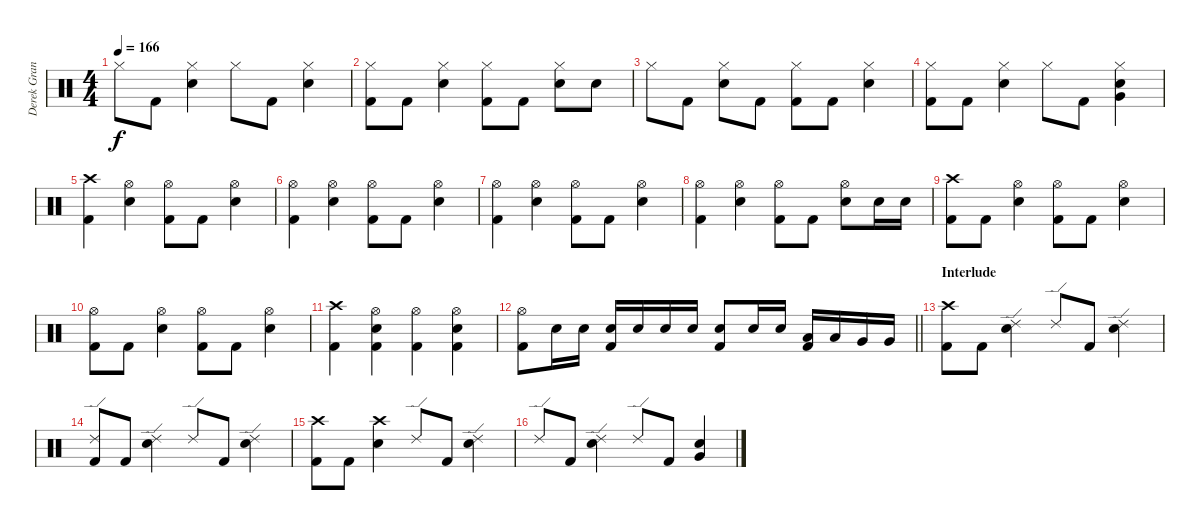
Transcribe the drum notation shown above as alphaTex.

\track ("Derek Grant - Drums" "Derek Gran") {instrument percussion}
\staff {score}
\articulation defaults
\ts (4 4)
\tempo 166
\clef neutral
\ks c "Hi-Hat (closed)".8{dy f} "Kick (hit) 2".8
("Snare (hit) 2" "Hi-Hat (closed)").4 "Hi-Hat (closed)".8 "Kick (hit) 2".8 ("Snare (hit) 2" "Hi-Hat (closed)").4 |
("Hi-Hat (closed)" "Kick (hit) 2").8 "Kick (hit) 2".8 ("Snare (hit) 2" "Hi-Hat (closed)").4 ("Hi-Hat (closed)" "Kick (hit) 2").8 "Kick (hit) 2".8 ("Snare (hit) 2" "Hi-Hat (closed)").8 "Snare (hit) 2".8 |
"Hi-Hat (closed)".8 "Kick (hit) 2".8 ("Snare (hit) 2" "Hi-Hat (closed)").8 "Kick (hit) 2".8 ("Hi-Hat (closed)" "Kick (hit) 2").8 "Kick (hit) 2".8 ("Snare (hit) 2" "Hi-Hat (closed)").4 |
("Hi-Hat (closed)" "Kick (hit) 2").8 "Kick (hit) 2".8 ("Snare (hit) 2" "Hi-Hat (closed)").4 "Hi-Hat (closed)".8 "Kick (hit) 2".8 ("Snare (hit) 2" "Hi-Hat (closed)" "Very Low Tom (hit)").4 |
("Crash high (hit)" "Kick (hit) 2").4 ("Snare (hit) 2" "Hi-Hat (open)").4 ("Hi-Hat (open)" "Kick (hit) 2").8 "Kick (hit) 2".8 ("Snare (hit) 2" "Hi-Hat (open)").4 |
("Hi-Hat (open)" "Kick (hit) 2").4 ("Snare (hit) 2" "Hi-Hat (open)").4 ("Hi-Hat (open)" "Kick (hit) 2").8 "Kick (hit) 2".8 ("Snare (hit) 2" "Hi-Hat (open)").4 |
("Hi-Hat (open)" "Kick (hit) 2").4 ("Snare (hit) 2" "Hi-Hat (open)").4 ("Hi-Hat (open)" "Kick (hit) 2").8 "Kick (hit) 2".8 ("Snare (hit) 2" "Hi-Hat (open)").4 |
("Hi-Hat (open)" "Kick (hit) 2").4 ("Snare (hit) 2" "Hi-Hat (open)").4 ("Hi-Hat (open)" "Kick (hit) 2").8 "Kick (hit) 2".8 ("Snare (hit) 2" "Hi-Hat (open)").8 "Snare (hit) 2".16 "Snare (hit) 2".16 |
("Crash high (hit)" "Kick (hit) 2").8 "Kick (hit) 2".8 ("Snare (hit) 2" "Hi-Hat (open)").4 ("Hi-Hat (open)" "Kick (hit) 2").8 "Kick (hit) 2".8 ("Snare (hit) 2" "Hi-Hat (open)").4 |
("Hi-Hat (open)" "Kick (hit) 2").8 "Kick (hit) 2".8 ("Snare (hit) 2" "Hi-Hat (open)").4 ("Hi-Hat (open)" "Kick (hit) 2").8 "Kick (hit) 2".8 ("Snare (hit) 2" "Hi-Hat (open)").4 |
("Crash high (hit)" "Kick (hit) 2").4 ("Snare (hit) 2" "Hi-Hat (open)" "Kick (hit) 2").4 ("Kick (hit) 2" "Hi-Hat (open)").4 ("Snare (hit) 2" "Hi-Hat (open)" "Kick (hit) 2").4 |
\barLineRight lightlight
("Kick (hit) 2" "Hi-Hat (open)").8 "Snare (hit) 2".16 "Snare (hit) 2".16 ("Snare (hit) 2" "Kick (hit) 2").16 "Snare (hit) 2".16 "Snare (hit) 2".16 "Snare (hit) 2".16 ("Snare (hit) 2" "Kick (hit) 2").8 "Snare (hit) 2".16 "Snare (hit) 2".16 ("Low Tom (hit)" "Kick (hit) 2").16 "Low Tom (hit)".16 "Very Low Tom (hit)".16 "Very Low Tom (hit)".16 |
\section ("" "Interlude")
("Crash high (hit)" "Kick (hit) 2").8 "Kick (hit) 2".8 ("Snare (hit) 2" "Ride (edge) 2").4 "Ride (edge) 2".8 "Kick (hit) 2".8 ("Ride (edge) 2" "Snare (hit) 2").4 |
("Kick (hit) 2" "Ride (edge) 2").8 "Kick (hit) 2".8 ("Ride (edge) 2" "Snare (hit) 2").4 "Ride (edge) 2".8 "Kick (hit) 2".8 ("Ride (edge) 2" "Snare (hit) 2").4 |
("Crash high (hit)" "Kick (hit) 2").8 "Kick (hit) 2".8 ("Snare (hit) 2" "Crash high (hit)").4 "Ride (edge) 2".8 "Kick (hit) 2".8 ("Ride (edge) 2" "Snare (hit) 2").4 |
"Ride (edge) 2".8 "Kick (hit) 2".8 ("Ride (edge) 2" "Snare (hit) 2").4 "Ride (edge) 2".8 "Kick (hit) 2".8 ("Snare (hit) 2" "Very Low Tom (hit)").4
